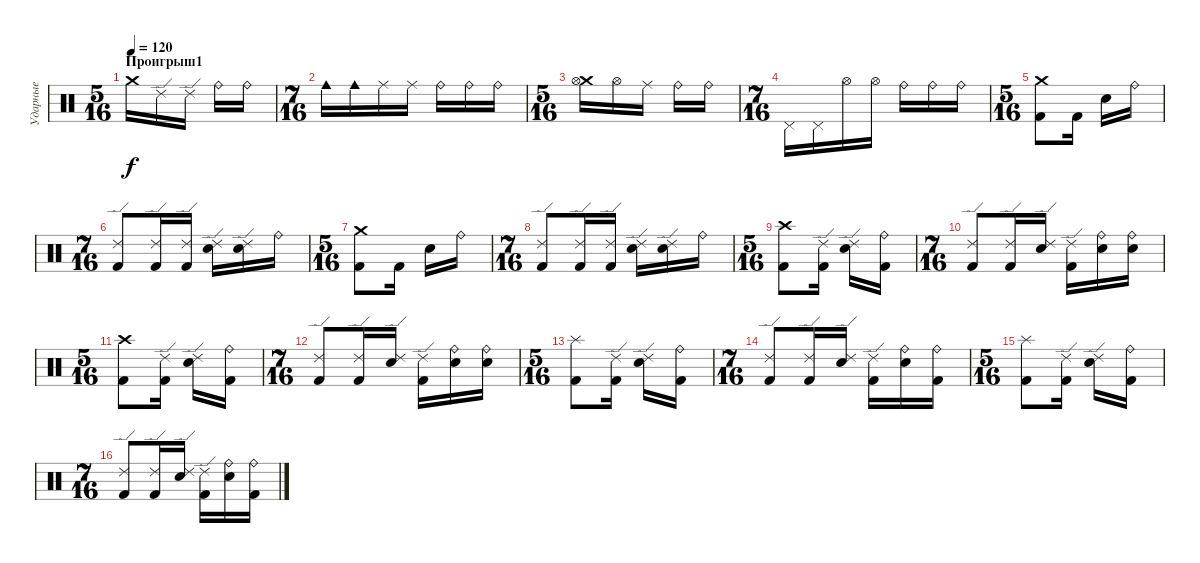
\track ("Ударные" "Ударные") {instrument percussion}
\staff {score}
\articulation defaults
\ts (5 16)
\section ("" "Проигрыш1")
\tempo 120
\clef neutral
\ks c "Crash medium (hit)".16{dy f} "Ride (edge) 2".16 "Ride (edge) 2".16 "Ride (bell)".16 "Ride (bell)".16
|
\ts (7 16)
"Cowbell medium (hit)".16 "Cowbell medium (hit)".16 "Ride (middle)".16 "Ride (middle)".16 "Ride (bell)".16 "Ride (bell)".16 "Ride (bell)".16 |
\ts (5 16)
("Crash medium (hit)" "Hi-Hat (open)").16 "Hi-Hat (open)".16 "Ride (middle)".16 "Ride (bell)".16 "Ride (bell)".16 |
\ts (7 16)
"Pedal Hi-Hat (hit)".16 "Pedal Hi-Hat (hit)".16 "Hi-Hat (open)".16 "Hi-Hat (open)".16 "Ride (bell)".16 "Ride (bell)".16 "Ride (bell)".16 |
\ts (5 16)
("Kick (hit) 2" "Crash medium (hit)").8 "Kick (hit) 2".16 "Electric Snare (hit)".16 "Ride (bell)".16 |
\ts (7 16)
("Ride (edge) 2" "Kick (hit) 2").8 ("Ride (edge) 2" "Kick (hit) 2").16 ("Ride (edge) 2" "Kick (hit) 2").16 ("Ride (edge) 2" "Electric Snare (hit)").16 ("Ride (edge) 2" "Electric Snare (hit)").16 "Ride (bell)".16 |
\ts (5 16)
("Kick (hit) 2" "Crash medium (hit)").8 "Kick (hit) 2".16 "Electric Snare (hit)".16 "Ride (bell)".16 |
\ts (7 16)
("Ride (edge) 2" "Kick (hit) 2").8 ("Ride (edge) 2" "Kick (hit) 2").16 ("Ride (edge) 2" "Kick (hit) 2").16 ("Ride (edge) 2" "Electric Snare (hit)").16 ("Ride (edge) 2" "Electric Snare (hit)").16 "Ride (bell)".16 |
\ts (5 16)
("Crash high (hit)" "Kick (hit) 2").8 ("Ride (edge) 2" "Kick (hit) 2").16 ("Ride (edge) 2" "Electric Snare (hit)").16 ("Ride (bell)" "Kick (hit) 2").16 |
\ts (7 16)
("Ride (edge) 2" "Kick (hit) 2").8 ("Ride (edge) 2" "Kick (hit) 2").16 ("Ride (edge) 2" "Electric Snare (hit)").16 ("Ride (edge) 2" "Kick (hit) 2").16 ("Ride (bell)" "Electric Snare (hit)").16 ("Ride (bell)" "Electric Snare (hit)").16 |
\ts (5 16)
("Crash high (hit)" "Kick (hit) 2").8 ("Ride (edge) 2" "Kick (hit) 2").16 ("Ride (edge) 2" "Electric Snare (hit)").16 ("Ride (bell)" "Kick (hit) 2").16 |
\ts (7 16)
("Ride (edge) 2" "Kick (hit) 2").8 ("Ride (edge) 2" "Kick (hit) 2").16 ("Ride (edge) 2" "Electric Snare (hit)").16 ("Ride (edge) 2" "Kick (hit) 2").16 ("Ride (bell)" "Electric Snare (hit)").16 ("Ride (bell)" "Electric Snare (hit)").16 |
\ts (5 16)
("Splash (hit)" "Kick (hit) 2").8 ("Ride (edge) 2" "Kick (hit) 2").16 ("Ride (edge) 2" "Electric Snare (hit)").16 ("Ride (bell)" "Kick (hit) 2").16 |
\ts (7 16)
("Ride (edge) 2" "Kick (hit) 2").8 ("Ride (edge) 2" "Kick (hit) 2").16 ("Ride (edge) 2" "Electric Snare (hit)").16 ("Ride (edge) 2" "Kick (hit) 2").16 ("Ride (bell)" "Electric Snare (hit)").16 ("Ride (bell)" "Kick (hit) 2").16 |
\ts (5 16)
("Splash (hit)" "Kick (hit) 2").8 ("Ride (edge) 2" "Kick (hit) 2").16 ("Ride (edge) 2" "Electric Snare (hit)").16 ("Ride (bell)" "Kick (hit) 2").16 |
\ts (7 16)
("Ride (edge) 2" "Kick (hit) 2").8 ("Ride (edge) 2" "Kick (hit) 2").16 ("Ride (edge) 2" "Electric Snare (hit)").16 ("Ride (edge) 2" "Kick (hit) 2").16 ("Ride (bell)" "Electric Snare (hit)").16 ("Ride (bell)" "Kick (hit) 2").16
